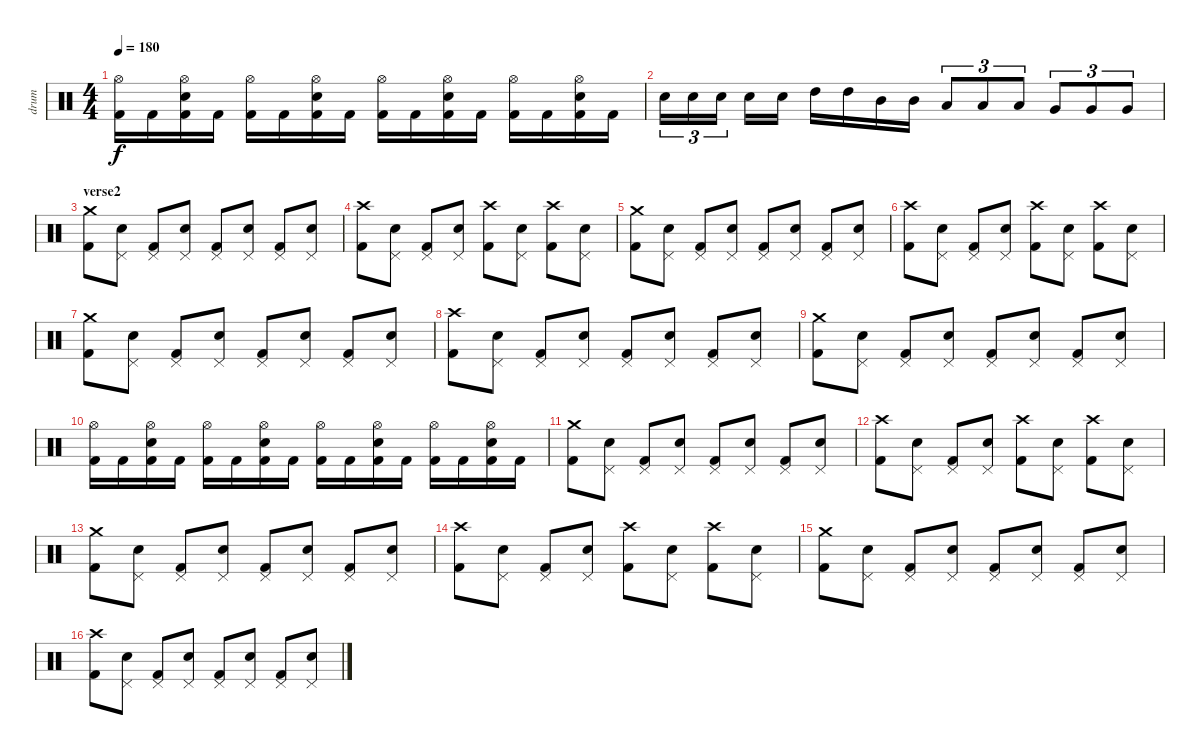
\track ("drum" "drum") {instrument percussion}
\staff {score}
\articulation defaults
\ts (4 4)
\tempo 180
\clef neutral
\ks c
("Hi-Hat (open)" "Kick (hit) 2").16{dy f} "Kick (hit) 2".16 ("Hi-Hat (open)" "Electric Snare (hit)" "Kick (hit) 2").16 "Kick (hit) 2".16 ("Hi-Hat (open)" "Kick (hit) 2").16 "Kick (hit) 2".16 ("Hi-Hat (open)" "Electric Snare (hit)" "Kick (hit) 2").16 "Kick (hit) 2".16 ("Hi-Hat (open)" "Kick (hit) 2").16 "Kick (hit) 2".16 ("Hi-Hat (open)" "Electric Snare (hit)" "Kick (hit) 2").16 "Kick (hit) 2".16 ("Hi-Hat (open)" "Kick (hit) 2").16 "Kick (hit) 2".16 ("Hi-Hat (open)" "Electric Snare (hit)" "Kick (hit) 2").16 "Kick (hit) 2".16 |
"Electric Snare (hit)".16{tu (3 2)} "Electric Snare (hit)".16{tu (3 2)} "Electric Snare (hit)".16{tu (3 2)} "Electric Snare (hit)".16 "Electric Snare (hit)".16 "High Tom (hit)".16 "High Tom (hit)".16 "Mid Tom (hit)".16 "Mid Tom (hit)".16 "Low Tom (hit)".8{tu (3 2)} "Low Tom (hit)".8{tu (3 2)} "Low Tom (hit)".8{tu (3 2)} "Very Low Tom (hit)".8{tu (3 2)} "Very Low Tom (hit)".8{tu (3 2)} "Very Low Tom (hit)".8{tu (3 2)} |
\section ("" "verse2")
("Crash medium (hit)" "Kick (hit) 2").8 ("Pedal Hi-Hat (hit)" "Electric Snare (hit)").8 ("Pedal Hi-Hat (hit)" "Kick (hit) 2").8 ("Pedal Hi-Hat (hit)" "Electric Snare (hit)").8 ("Pedal Hi-Hat (hit)" "Kick (hit) 2").8 ("Pedal Hi-Hat (hit)" "Electric Snare (hit)").8 ("Pedal Hi-Hat (hit)" "Kick (hit) 2").8 ("Pedal Hi-Hat (hit)" "Electric Snare (hit)").8 |
("Crash high (hit)" "Kick (hit) 2").8 ("Pedal Hi-Hat (hit)" "Electric Snare (hit)").8 ("Pedal Hi-Hat (hit)" "Kick (hit) 2").8 ("Pedal Hi-Hat (hit)" "Electric Snare (hit)").8 ("Crash high (hit)" "Kick (hit) 2").8 ("Pedal Hi-Hat (hit)" "Electric Snare (hit)").8 ("Crash high (hit)" "Kick (hit) 2").8 ("Pedal Hi-Hat (hit)" "Electric Snare (hit)").8 |
("Crash medium (hit)" "Kick (hit) 2").8 ("Pedal Hi-Hat (hit)" "Electric Snare (hit)").8 ("Pedal Hi-Hat (hit)" "Kick (hit) 2").8 ("Pedal Hi-Hat (hit)" "Electric Snare (hit)").8 ("Pedal Hi-Hat (hit)" "Kick (hit) 2").8 ("Pedal Hi-Hat (hit)" "Electric Snare (hit)").8 ("Pedal Hi-Hat (hit)" "Kick (hit) 2").8 ("Pedal Hi-Hat (hit)" "Electric Snare (hit)").8 |
("Crash high (hit)" "Kick (hit) 2").8 ("Pedal Hi-Hat (hit)" "Electric Snare (hit)").8 ("Pedal Hi-Hat (hit)" "Kick (hit) 2").8 ("Pedal Hi-Hat (hit)" "Electric Snare (hit)").8 ("Crash high (hit)" "Kick (hit) 2").8 ("Pedal Hi-Hat (hit)" "Electric Snare (hit)").8 ("Crash high (hit)" "Kick (hit) 2").8 ("Pedal Hi-Hat (hit)" "Electric Snare (hit)").8 |
("Crash medium (hit)" "Kick (hit) 2").8 ("Pedal Hi-Hat (hit)" "Electric Snare (hit)").8 ("Pedal Hi-Hat (hit)" "Kick (hit) 2").8 ("Pedal Hi-Hat (hit)" "Electric Snare (hit)").8 ("Pedal Hi-Hat (hit)" "Kick (hit) 2").8 ("Pedal Hi-Hat (hit)" "Electric Snare (hit)").8 ("Pedal Hi-Hat (hit)" "Kick (hit) 2").8 ("Pedal Hi-Hat (hit)" "Electric Snare (hit)").8 |
("Crash high (hit)" "Kick (hit) 2").8 ("Pedal Hi-Hat (hit)" "Electric Snare (hit)").8 ("Pedal Hi-Hat (hit)" "Kick (hit) 2").8 ("Pedal Hi-Hat (hit)" "Electric Snare (hit)").8 ("Pedal Hi-Hat (hit)" "Kick (hit) 2").8 ("Pedal Hi-Hat (hit)" "Electric Snare (hit)").8 ("Pedal Hi-Hat (hit)" "Kick (hit) 2").8 ("Pedal Hi-Hat (hit)" "Electric Snare (hit)").8 |
("Crash medium (hit)" "Kick (hit) 2").8 ("Pedal Hi-Hat (hit)" "Electric Snare (hit)").8 ("Pedal Hi-Hat (hit)" "Kick (hit) 2").8 ("Pedal Hi-Hat (hit)" "Electric Snare (hit)").8 ("Pedal Hi-Hat (hit)" "Kick (hit) 2").8 ("Pedal Hi-Hat (hit)" "Electric Snare (hit)").8 ("Pedal Hi-Hat (hit)" "Kick (hit) 2").8 ("Pedal Hi-Hat (hit)" "Electric Snare (hit)").8 |
("Hi-Hat (open)" "Kick (hit) 2").16 "Kick (hit) 2".16 ("Hi-Hat (open)" "Electric Snare (hit)" "Kick (hit) 2").16 "Kick (hit) 2".16 ("Hi-Hat (open)" "Kick (hit) 2").16 "Kick (hit) 2".16 ("Hi-Hat (open)" "Electric Snare (hit)" "Kick (hit) 2").16 "Kick (hit) 2".16 ("Hi-Hat (open)" "Kick (hit) 2").16 "Kick (hit) 2".16 ("Hi-Hat (open)" "Electric Snare (hit)" "Kick (hit) 2").16 "Kick (hit) 2".16 ("Hi-Hat (open)" "Kick (hit) 2").16 "Kick (hit) 2".16 ("Hi-Hat (open)" "Electric Snare (hit)" "Kick (hit) 2").16 "Kick (hit) 2".16 |
("Crash medium (hit)" "Kick (hit) 2").8 ("Pedal Hi-Hat (hit)" "Electric Snare (hit)").8 ("Pedal Hi-Hat (hit)" "Kick (hit) 2").8 ("Pedal Hi-Hat (hit)" "Electric Snare (hit)").8 ("Pedal Hi-Hat (hit)" "Kick (hit) 2").8 ("Pedal Hi-Hat (hit)" "Electric Snare (hit)").8 ("Pedal Hi-Hat (hit)" "Kick (hit) 2").8 ("Pedal Hi-Hat (hit)" "Electric Snare (hit)").8 |
("Crash high (hit)" "Kick (hit) 2").8 ("Pedal Hi-Hat (hit)" "Electric Snare (hit)").8 ("Pedal Hi-Hat (hit)" "Kick (hit) 2").8 ("Pedal Hi-Hat (hit)" "Electric Snare (hit)").8 ("Crash high (hit)" "Kick (hit) 2").8 ("Pedal Hi-Hat (hit)" "Electric Snare (hit)").8 ("Crash high (hit)" "Kick (hit) 2").8 ("Pedal Hi-Hat (hit)" "Electric Snare (hit)").8 |
("Crash medium (hit)" "Kick (hit) 2").8 ("Pedal Hi-Hat (hit)" "Electric Snare (hit)").8 ("Pedal Hi-Hat (hit)" "Kick (hit) 2").8 ("Pedal Hi-Hat (hit)" "Electric Snare (hit)").8 ("Pedal Hi-Hat (hit)" "Kick (hit) 2").8 ("Pedal Hi-Hat (hit)" "Electric Snare (hit)").8 ("Pedal Hi-Hat (hit)" "Kick (hit) 2").8 ("Pedal Hi-Hat (hit)" "Electric Snare (hit)").8 |
("Crash high (hit)" "Kick (hit) 2").8 ("Pedal Hi-Hat (hit)" "Electric Snare (hit)").8 ("Pedal Hi-Hat (hit)" "Kick (hit) 2").8 ("Pedal Hi-Hat (hit)" "Electric Snare (hit)").8 ("Crash high (hit)" "Kick (hit) 2").8 ("Pedal Hi-Hat (hit)" "Electric Snare (hit)").8 ("Crash high (hit)" "Kick (hit) 2").8 ("Pedal Hi-Hat (hit)" "Electric Snare (hit)").8 |
("Crash medium (hit)" "Kick (hit) 2").8 ("Pedal Hi-Hat (hit)" "Electric Snare (hit)").8 ("Pedal Hi-Hat (hit)" "Kick (hit) 2").8 ("Pedal Hi-Hat (hit)" "Electric Snare (hit)").8 ("Pedal Hi-Hat (hit)" "Kick (hit) 2").8 ("Pedal Hi-Hat (hit)" "Electric Snare (hit)").8 ("Pedal Hi-Hat (hit)" "Kick (hit) 2").8 ("Pedal Hi-Hat (hit)" "Electric Snare (hit)").8 |
("Crash high (hit)" "Kick (hit) 2").8 ("Pedal Hi-Hat (hit)" "Electric Snare (hit)").8 ("Pedal Hi-Hat (hit)" "Kick (hit) 2").8 ("Pedal Hi-Hat (hit)" "Electric Snare (hit)").8 ("Pedal Hi-Hat (hit)" "Kick (hit) 2").8 ("Pedal Hi-Hat (hit)" "Electric Snare (hit)").8 ("Pedal Hi-Hat (hit)" "Kick (hit) 2").8 ("Pedal Hi-Hat (hit)" "Electric Snare (hit)").8
